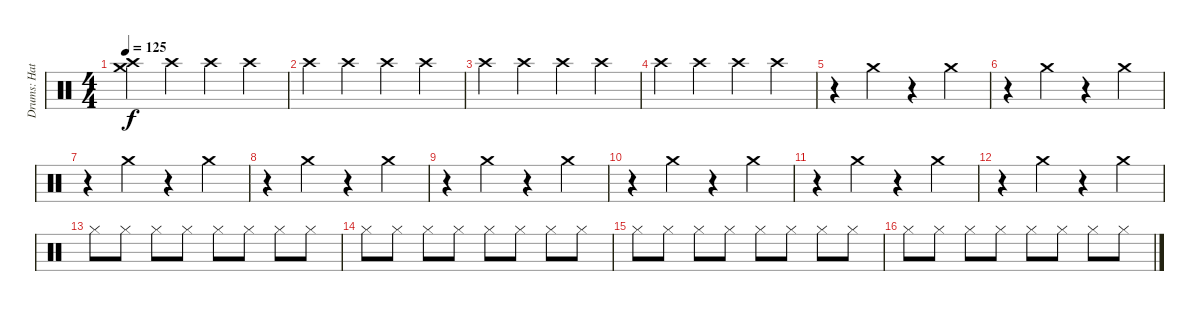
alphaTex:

\track ("Drums: Hats, Etc" "Drums: Hat") {instrument percussion}
\staff {score}
\articulation defaults
\ts (4 4)
\tempo 125
\clef neutral
\ks c
("Crash medium (hit)" "Crash high (hit)").4{dy f} "Crash high (hit)".4 "Crash high (hit)".4 "Crash high (hit)".4 |
"Crash high (hit)".4 "Crash high (hit)".4 "Crash high (hit)".4 "Crash high (hit)".4 |
"Crash high (hit)".4 "Crash high (hit)".4 "Crash high (hit)".4 "Crash high (hit)".4 |
"Crash high (hit)".4 "Crash high (hit)".4 "Crash high (hit)".4 "Crash high (hit)".4 |
r.4 "Crash medium (hit)".4 r.4 "Crash medium (hit)".4 |
r.4 "Crash medium (hit)".4 r.4 "Crash medium (hit)".4 |
r.4 "Crash medium (hit)".4 r.4 "Crash medium (hit)".4 |
r.4 "Crash medium (hit)".4 r.4 "Crash medium (hit)".4 |
r.4 "Crash medium (hit)".4 r.4 "Crash medium (hit)".4 |
r.4 "Crash medium (hit)".4 r.4 "Crash medium (hit)".4 |
r.4 "Crash medium (hit)".4 r.4 "Crash medium (hit)".4 |
r.4 "Crash medium (hit)".4 r.4 "Crash medium (hit)".4 |
"Hi-Hat (closed)".8 "Hi-Hat (closed)".8 "Hi-Hat (closed)".8 "Hi-Hat (closed)".8 "Hi-Hat (closed)".8 "Hi-Hat (closed)".8 "Hi-Hat (closed)".8 "Hi-Hat (closed)".8 |
"Hi-Hat (closed)".8 "Hi-Hat (closed)".8 "Hi-Hat (closed)".8 "Hi-Hat (closed)".8 "Hi-Hat (closed)".8 "Hi-Hat (closed)".8 "Hi-Hat (closed)".8 "Hi-Hat (closed)".8 |
"Hi-Hat (closed)".8 "Hi-Hat (closed)".8 "Hi-Hat (closed)".8 "Hi-Hat (closed)".8 "Hi-Hat (closed)".8 "Hi-Hat (closed)".8 "Hi-Hat (closed)".8 "Hi-Hat (closed)".8 |
"Hi-Hat (closed)".8 "Hi-Hat (closed)".8 "Hi-Hat (closed)".8 "Hi-Hat (closed)".8 "Hi-Hat (closed)".8 "Hi-Hat (closed)".8 "Hi-Hat (closed)".8 "Hi-Hat (closed)".8
